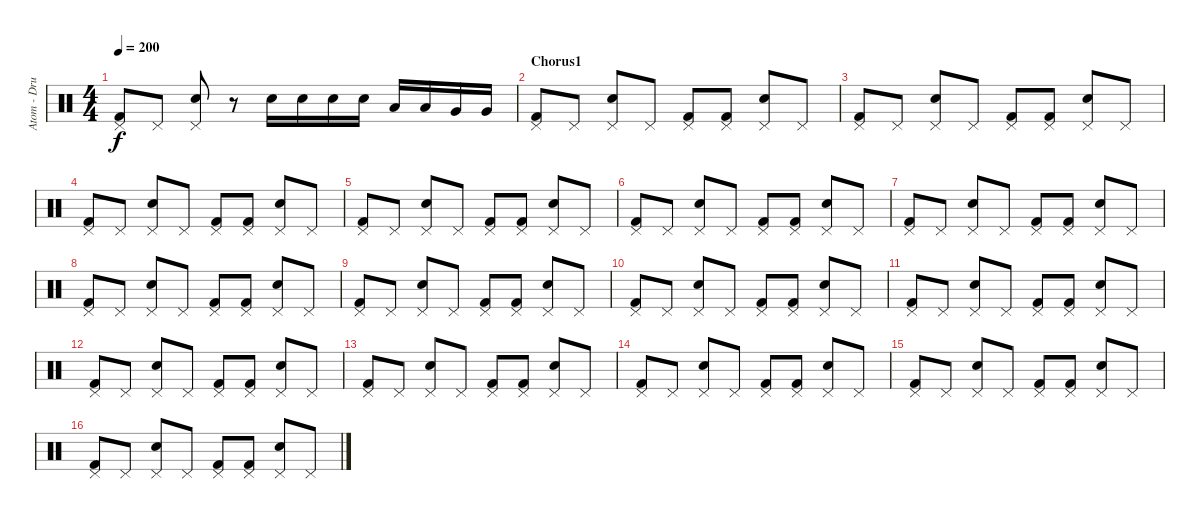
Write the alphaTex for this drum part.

\track ("Atom - Drums" "Atom - Dru") {instrument percussion}
\staff {score}
\articulation defaults
\ts (4 4)
\tempo 200
\clef neutral
\ks c
("Pedal Hi-Hat (hit)" "Kick (hit) 2").8{dy f} "Pedal Hi-Hat (hit)".8 ("Pedal Hi-Hat (hit)" "Electric Snare (hit)").8 r.8 "Electric Snare (hit)".16 "Electric Snare (hit)".16 "Electric Snare (hit)".16 "Electric Snare (hit)".16 "Low Tom (hit)".16 "Low Tom (hit)".16 "Very Low Tom (hit)".16 "Very Low Tom (hit)".16 |
\section ("" "Chorus1")
("Pedal Hi-Hat (hit)" "Kick (hit) 2").8 "Pedal Hi-Hat (hit)".8 ("Pedal Hi-Hat (hit)" "Electric Snare (hit)").8 "Pedal Hi-Hat (hit)".8 ("Pedal Hi-Hat (hit)" "Kick (hit) 2").8 ("Pedal Hi-Hat (hit)" "Kick (hit) 2").8 ("Pedal Hi-Hat (hit)" "Electric Snare (hit)").8 "Pedal Hi-Hat (hit)".8 |
("Pedal Hi-Hat (hit)" "Kick (hit) 2").8 "Pedal Hi-Hat (hit)".8 ("Pedal Hi-Hat (hit)" "Electric Snare (hit)").8 "Pedal Hi-Hat (hit)".8 ("Pedal Hi-Hat (hit)" "Kick (hit) 2").8 ("Pedal Hi-Hat (hit)" "Kick (hit) 2").8 ("Pedal Hi-Hat (hit)" "Electric Snare (hit)").8 "Pedal Hi-Hat (hit)".8 |
("Pedal Hi-Hat (hit)" "Kick (hit) 2").8 "Pedal Hi-Hat (hit)".8 ("Pedal Hi-Hat (hit)" "Electric Snare (hit)").8 "Pedal Hi-Hat (hit)".8 ("Pedal Hi-Hat (hit)" "Kick (hit) 2").8 ("Pedal Hi-Hat (hit)" "Kick (hit) 2").8 ("Pedal Hi-Hat (hit)" "Electric Snare (hit)").8 "Pedal Hi-Hat (hit)".8 |
("Pedal Hi-Hat (hit)" "Kick (hit) 2").8 "Pedal Hi-Hat (hit)".8 ("Pedal Hi-Hat (hit)" "Electric Snare (hit)").8 "Pedal Hi-Hat (hit)".8 ("Pedal Hi-Hat (hit)" "Kick (hit) 2").8 ("Pedal Hi-Hat (hit)" "Kick (hit) 2").8 ("Pedal Hi-Hat (hit)" "Electric Snare (hit)").8 "Pedal Hi-Hat (hit)".8 |
("Pedal Hi-Hat (hit)" "Kick (hit) 2").8 "Pedal Hi-Hat (hit)".8 ("Pedal Hi-Hat (hit)" "Electric Snare (hit)").8 "Pedal Hi-Hat (hit)".8 ("Pedal Hi-Hat (hit)" "Kick (hit) 2").8 ("Pedal Hi-Hat (hit)" "Kick (hit) 2").8 ("Pedal Hi-Hat (hit)" "Electric Snare (hit)").8 "Pedal Hi-Hat (hit)".8 |
("Pedal Hi-Hat (hit)" "Kick (hit) 2").8 "Pedal Hi-Hat (hit)".8 ("Pedal Hi-Hat (hit)" "Electric Snare (hit)").8 "Pedal Hi-Hat (hit)".8 ("Pedal Hi-Hat (hit)" "Kick (hit) 2").8 ("Pedal Hi-Hat (hit)" "Kick (hit) 2").8 ("Pedal Hi-Hat (hit)" "Electric Snare (hit)").8 "Pedal Hi-Hat (hit)".8 |
("Pedal Hi-Hat (hit)" "Kick (hit) 2").8 "Pedal Hi-Hat (hit)".8 ("Pedal Hi-Hat (hit)" "Electric Snare (hit)").8 "Pedal Hi-Hat (hit)".8 ("Pedal Hi-Hat (hit)" "Kick (hit) 2").8 ("Pedal Hi-Hat (hit)" "Kick (hit) 2").8 ("Pedal Hi-Hat (hit)" "Electric Snare (hit)").8 "Pedal Hi-Hat (hit)".8 |
("Pedal Hi-Hat (hit)" "Kick (hit) 2").8 "Pedal Hi-Hat (hit)".8 ("Pedal Hi-Hat (hit)" "Electric Snare (hit)").8 "Pedal Hi-Hat (hit)".8 ("Pedal Hi-Hat (hit)" "Kick (hit) 2").8 ("Pedal Hi-Hat (hit)" "Kick (hit) 2").8 ("Pedal Hi-Hat (hit)" "Electric Snare (hit)").8 "Pedal Hi-Hat (hit)".8 |
("Pedal Hi-Hat (hit)" "Kick (hit) 2").8 "Pedal Hi-Hat (hit)".8 ("Pedal Hi-Hat (hit)" "Electric Snare (hit)").8 "Pedal Hi-Hat (hit)".8 ("Pedal Hi-Hat (hit)" "Kick (hit) 2").8 ("Pedal Hi-Hat (hit)" "Kick (hit) 2").8 ("Pedal Hi-Hat (hit)" "Electric Snare (hit)").8 "Pedal Hi-Hat (hit)".8 |
("Pedal Hi-Hat (hit)" "Kick (hit) 2").8 "Pedal Hi-Hat (hit)".8 ("Pedal Hi-Hat (hit)" "Electric Snare (hit)").8 "Pedal Hi-Hat (hit)".8 ("Pedal Hi-Hat (hit)" "Kick (hit) 2").8 ("Pedal Hi-Hat (hit)" "Kick (hit) 2").8 ("Pedal Hi-Hat (hit)" "Electric Snare (hit)").8 "Pedal Hi-Hat (hit)".8 |
("Pedal Hi-Hat (hit)" "Kick (hit) 2").8 "Pedal Hi-Hat (hit)".8 ("Pedal Hi-Hat (hit)" "Electric Snare (hit)").8 "Pedal Hi-Hat (hit)".8 ("Pedal Hi-Hat (hit)" "Kick (hit) 2").8 ("Pedal Hi-Hat (hit)" "Kick (hit) 2").8 ("Pedal Hi-Hat (hit)" "Electric Snare (hit)").8 "Pedal Hi-Hat (hit)".8 |
("Pedal Hi-Hat (hit)" "Kick (hit) 2").8 "Pedal Hi-Hat (hit)".8 ("Pedal Hi-Hat (hit)" "Electric Snare (hit)").8 "Pedal Hi-Hat (hit)".8 ("Pedal Hi-Hat (hit)" "Kick (hit) 2").8 ("Pedal Hi-Hat (hit)" "Kick (hit) 2").8 ("Pedal Hi-Hat (hit)" "Electric Snare (hit)").8 "Pedal Hi-Hat (hit)".8 |
("Pedal Hi-Hat (hit)" "Kick (hit) 2").8 "Pedal Hi-Hat (hit)".8 ("Pedal Hi-Hat (hit)" "Electric Snare (hit)").8 "Pedal Hi-Hat (hit)".8 ("Pedal Hi-Hat (hit)" "Kick (hit) 2").8 ("Pedal Hi-Hat (hit)" "Kick (hit) 2").8 ("Pedal Hi-Hat (hit)" "Electric Snare (hit)").8 "Pedal Hi-Hat (hit)".8 |
("Pedal Hi-Hat (hit)" "Kick (hit) 2").8 "Pedal Hi-Hat (hit)".8 ("Pedal Hi-Hat (hit)" "Electric Snare (hit)").8 "Pedal Hi-Hat (hit)".8 ("Pedal Hi-Hat (hit)" "Kick (hit) 2").8 ("Pedal Hi-Hat (hit)" "Kick (hit) 2").8 ("Pedal Hi-Hat (hit)" "Electric Snare (hit)").8 "Pedal Hi-Hat (hit)".8 |
("Pedal Hi-Hat (hit)" "Kick (hit) 2").8 "Pedal Hi-Hat (hit)".8 ("Pedal Hi-Hat (hit)" "Electric Snare (hit)").8 "Pedal Hi-Hat (hit)".8 ("Pedal Hi-Hat (hit)" "Kick (hit) 2").8 ("Pedal Hi-Hat (hit)" "Kick (hit) 2").8 ("Pedal Hi-Hat (hit)" "Electric Snare (hit)").8 "Pedal Hi-Hat (hit)".8
